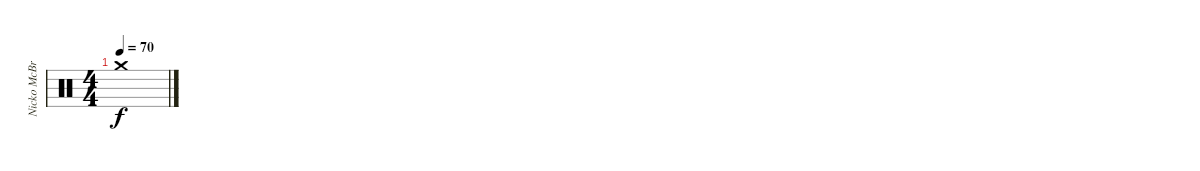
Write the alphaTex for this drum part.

\track ("Nicko McBrain" "Nicko McBr") {instrument percussion}
\staff {score}
\articulation defaults
\ts (4 4)
\tempo 70
\clef neutral
\ks c "Crash medium (hit)".1{dy f}
